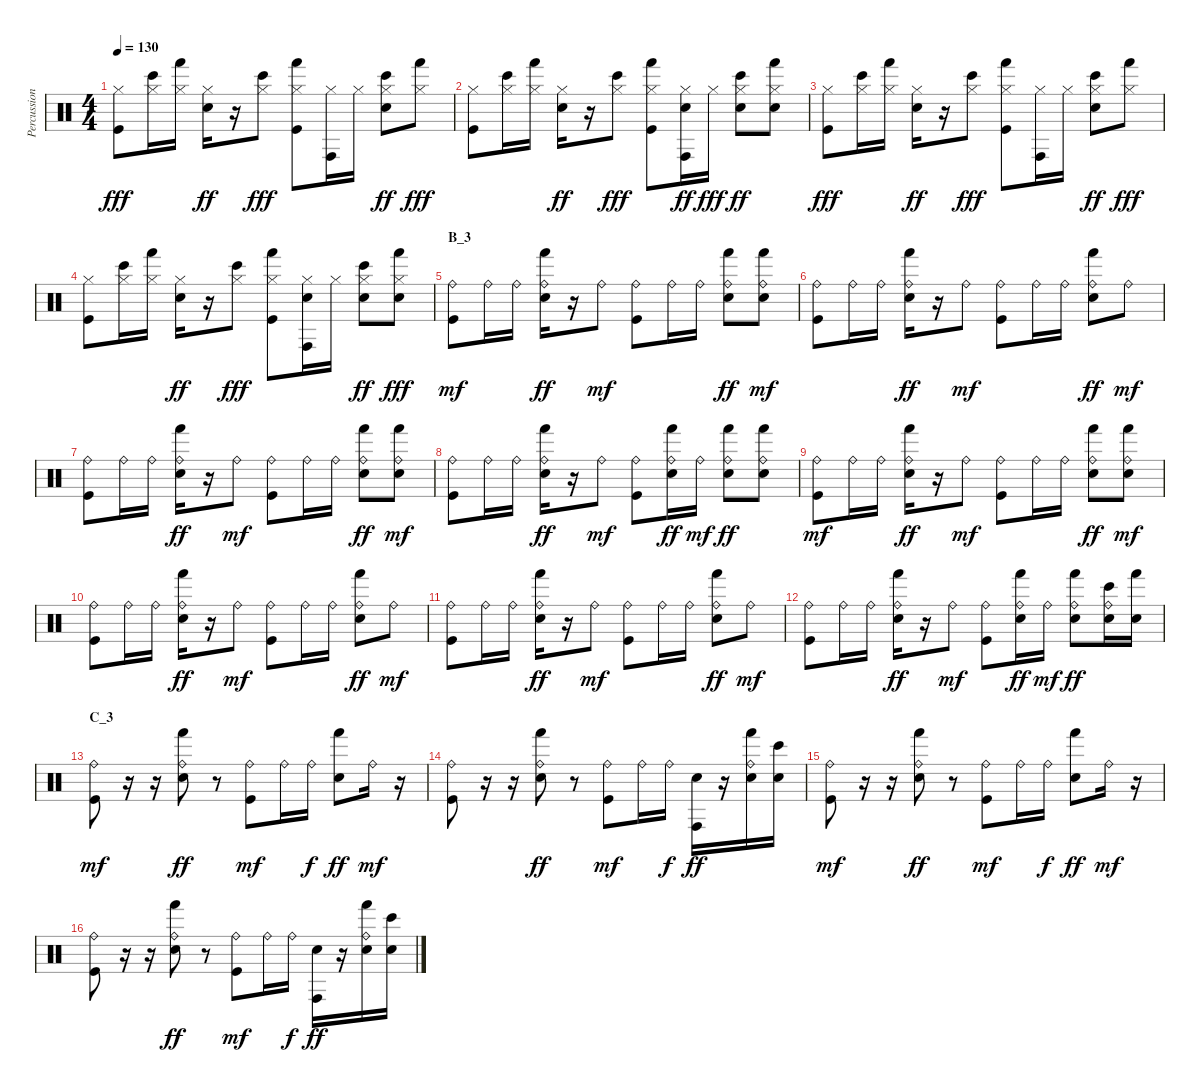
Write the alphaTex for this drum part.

\track ("Percussion" "Percussion") {instrument percussion}
\staff {score}
\articulation defaults
\ts (4 4)
\tempo 130
\clef neutral
\ks c
("Hi-Hat (closed)" "Kick (hit)").8{dy fff} ("Hi-Hat (closed)" "Bongo High (hit)").16 ("Hi-Hat (closed)" "Hand (hit)").16 ("Hi-Hat (closed)" "Electric Snare (hit)").16{dy ff} r.16 ("Hi-Hat (closed)" "Bongo High (hit)").8{dy fff} ("Hi-Hat (closed)" "Hand (hit)" "Kick (hit)").8 ("Hi-Hat (closed)" "Conga high (hit)").16 "Hi-Hat (closed)".16 ("Hi-Hat (closed)" "Bongo High (hit)" "Electric Snare (hit)").8{dy ff} ("Hi-Hat (closed)" "Hand (hit)").8{dy fff} |
("Hi-Hat (closed)" "Kick (hit)").8 ("Hi-Hat (closed)" "Bongo High (hit)").16 ("Hi-Hat (closed)" "Hand (hit)").16 ("Hi-Hat (closed)" "Electric Snare (hit)").16{dy ff} r.16 ("Hi-Hat (closed)" "Bongo High (hit)").8{dy fff} ("Hi-Hat (closed)" "Hand (hit)" "Kick (hit)").8 ("Hi-Hat (closed)" "Conga high (hit)" "Electric Snare (hit)").16{dy ff} "Hi-Hat (closed)".16{dy fff} ("Hi-Hat (closed)" "Bongo High (hit)" "Electric Snare (hit)").8{dy ff} ("Hi-Hat (closed)" "Hand (hit)" "Electric Snare (hit)").8 |
("Hi-Hat (closed)" "Kick (hit)").8{dy fff} ("Hi-Hat (closed)" "Bongo High (hit)").16 ("Hi-Hat (closed)" "Hand (hit)").16 ("Hi-Hat (closed)" "Electric Snare (hit)").16{dy ff} r.16 ("Hi-Hat (closed)" "Bongo High (hit)").8{dy fff} ("Hi-Hat (closed)" "Hand (hit)" "Kick (hit)").8 ("Hi-Hat (closed)" "Conga high (hit)").16 "Hi-Hat (closed)".16 ("Hi-Hat (closed)" "Bongo High (hit)" "Electric Snare (hit)").8{dy ff} ("Hi-Hat (closed)" "Hand (hit)").8{dy fff} |
("Hi-Hat (closed)" "Kick (hit)").8 ("Hi-Hat (closed)" "Bongo High (hit)").16 ("Hi-Hat (closed)" "Hand (hit)").16 ("Hi-Hat (closed)" "Electric Snare (hit)").16{dy ff} r.16 ("Hi-Hat (closed)" "Bongo High (hit)").8{dy fff} ("Hi-Hat (closed)" "Hand (hit)" "Kick (hit)").8 ("Hi-Hat (closed)" "Conga high (hit)" "Electric Snare (hit)").16 "Hi-Hat (closed)".16 ("Hi-Hat (closed)" "Bongo High (hit)" "Electric Snare (hit)").8{dy ff} ("Hi-Hat (closed)" "Hand (hit)" "Electric Snare (hit)").8{dy fff} |
\section ("" "B_3")
("Ride (bell)" "Kick (hit)").8{dy mf} "Ride (bell)".16 "Ride (bell)".16 ("Ride (bell)" "Hand (hit)" "Electric Snare (hit)").16{dy ff} r.16 "Ride (bell)".8{dy mf} ("Ride (bell)" "Kick (hit)").8 "Ride (bell)".16 "Ride (bell)".16 ("Ride (bell)" "Hand (hit)" "Electric Snare (hit)").8{dy ff} ("Ride (bell)" "Hand (hit)" "Electric Snare (hit)").8{dy mf} |
("Ride (bell)" "Kick (hit)").8 "Ride (bell)".16 "Ride (bell)".16 ("Ride (bell)" "Hand (hit)" "Electric Snare (hit)").16{dy ff} r.16 "Ride (bell)".8{dy mf} ("Ride (bell)" "Kick (hit)").8 "Ride (bell)".16 "Ride (bell)".16 ("Ride (bell)" "Hand (hit)" "Electric Snare (hit)").8{dy ff} "Ride (bell)".8{dy mf} |
("Ride (bell)" "Kick (hit)").8 "Ride (bell)".16 "Ride (bell)".16 ("Ride (bell)" "Hand (hit)" "Electric Snare (hit)").16{dy ff} r.16 "Ride (bell)".8{dy mf} ("Ride (bell)" "Kick (hit)").8 "Ride (bell)".16 "Ride (bell)".16 ("Ride (bell)" "Hand (hit)" "Electric Snare (hit)").8{dy ff} ("Ride (bell)" "Hand (hit)" "Electric Snare (hit)").8{dy mf} |
("Ride (bell)" "Kick (hit)").8 "Ride (bell)".16 "Ride (bell)".16 ("Ride (bell)" "Hand (hit)" "Electric Snare (hit)").16{dy ff} r.16 "Ride (bell)".8{dy mf} ("Ride (bell)" "Kick (hit)").8 ("Ride (bell)" "Hand (hit)" "Electric Snare (hit)").16{dy ff} "Ride (bell)".16{dy mf} ("Ride (bell)" "Hand (hit)" "Electric Snare (hit)").8{dy ff} ("Ride (bell)" "Hand (hit)" "Electric Snare (hit)").8 |
("Ride (bell)" "Kick (hit)").8{dy mf} "Ride (bell)".16 "Ride (bell)".16 ("Ride (bell)" "Hand (hit)" "Electric Snare (hit)").16{dy ff} r.16 "Ride (bell)".8{dy mf} ("Ride (bell)" "Kick (hit)").8 "Ride (bell)".16 "Ride (bell)".16 ("Ride (bell)" "Hand (hit)" "Electric Snare (hit)").8{dy ff} ("Ride (bell)" "Hand (hit)" "Electric Snare (hit)").8{dy mf} |
("Ride (bell)" "Kick (hit)").8 "Ride (bell)".16 "Ride (bell)".16 ("Ride (bell)" "Hand (hit)" "Electric Snare (hit)").16{dy ff} r.16 "Ride (bell)".8{dy mf} ("Ride (bell)" "Kick (hit)").8 "Ride (bell)".16 "Ride (bell)".16 ("Ride (bell)" "Hand (hit)" "Electric Snare (hit)").8{dy ff} "Ride (bell)".8{dy mf} |
("Ride (bell)" "Kick (hit)").8 "Ride (bell)".16 "Ride (bell)".16 ("Ride (bell)" "Hand (hit)" "Electric Snare (hit)").16{dy ff} r.16 "Ride (bell)".8{dy mf} ("Ride (bell)" "Kick (hit)").8 "Ride (bell)".16 "Ride (bell)".16 ("Ride (bell)" "Hand (hit)" "Electric Snare (hit)").8{dy ff} "Ride (bell)".8{dy mf} |
("Ride (bell)" "Kick (hit)").8 "Ride (bell)".16 "Ride (bell)".16 ("Ride (bell)" "Hand (hit)" "Electric Snare (hit)").16{dy ff} r.16 "Ride (bell)".8{dy mf} ("Ride (bell)" "Kick (hit)").8 ("Ride (bell)" "Hand (hit)" "Electric Snare (hit)").16{dy ff} "Ride (bell)".16{dy mf} ("Ride (bell)" "Hand (hit)" "Electric Snare (hit)").8{dy ff} ("Ride (bell)" "Bongo High (hit)" "Electric Snare (hit)").16 ("Hand (hit)" "Electric Snare (hit)").16 |
\section ("" "C_3")
("Ride (bell)" "Kick (hit)").8{dy mf} r.16 r.16 ("Ride (bell)" "Hand (hit)" "Electric Snare (hit)").8{dy ff} r.8 ("Ride (bell)" "Kick (hit)").8{dy mf} "Ride (bell)".16 "Ride (bell)".16{dy f} ("Hand (hit)" "Electric Snare (hit)").8{dy ff} "Ride (bell)".16{dy mf} r.16 |
("Ride (bell)" "Kick (hit)").8 r.16 r.16 ("Ride (bell)" "Hand (hit)" "Electric Snare (hit)").8{dy ff} r.8 ("Ride (bell)" "Kick (hit)").8{dy mf} "Ride (bell)".16 "Ride (bell)".16{dy f} ("Conga high (hit)" "Electric Snare (hit)").16{dy ff} r.16 ("Ride (bell)" "Hand (hit)" "Electric Snare (hit)").16 ("Bongo High (hit)" "Electric Snare (hit)").16 |
("Ride (bell)" "Kick (hit)").8{dy mf} r.16 r.16 ("Ride (bell)" "Hand (hit)" "Electric Snare (hit)").8{dy ff} r.8 ("Ride (bell)" "Kick (hit)").8{dy mf} "Ride (bell)".16 "Ride (bell)".16{dy f} ("Hand (hit)" "Electric Snare (hit)").8{dy ff} "Ride (bell)".16{dy mf} r.16 |
("Ride (bell)" "Kick (hit)").8 r.16 r.16 ("Ride (bell)" "Hand (hit)" "Electric Snare (hit)").8{dy ff} r.8 ("Ride (bell)" "Kick (hit)").8{dy mf} "Ride (bell)".16 "Ride (bell)".16{dy f} ("Conga high (hit)" "Electric Snare (hit)").16{dy ff} r.16 ("Ride (bell)" "Hand (hit)" "Electric Snare (hit)").16 ("Bongo High (hit)" "Electric Snare (hit)").16
